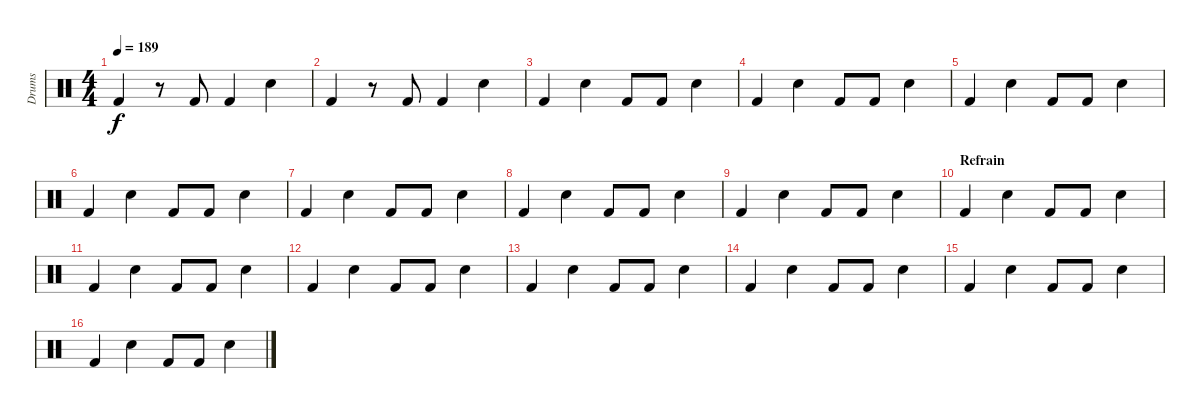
\track ("Drums" "Drums") {instrument percussion}
\staff {score}
\articulation defaults
\ts (4 4)
\tempo 189
\clef neutral
\ks c "Kick (hit) 2".4{dy f}
r.8 "Kick (hit) 2".8 "Kick (hit) 2".4 "Electric Snare (hit)".4 |
"Kick (hit) 2".4 r.8 "Kick (hit) 2".8 "Kick (hit) 2".4 "Electric Snare (hit)".4 |
"Kick (hit) 2".4 "Electric Snare (hit)".4 "Kick (hit) 2".8 "Kick (hit) 2".8 "Electric Snare (hit)".4 |
"Kick (hit) 2".4 "Electric Snare (hit)".4 "Kick (hit) 2".8 "Kick (hit) 2".8 "Electric Snare (hit)".4 |
"Kick (hit) 2".4 "Electric Snare (hit)".4 "Kick (hit) 2".8 "Kick (hit) 2".8 "Electric Snare (hit)".4 |
"Kick (hit) 2".4 "Electric Snare (hit)".4 "Kick (hit) 2".8 "Kick (hit) 2".8 "Electric Snare (hit)".4 |
"Kick (hit) 2".4 "Electric Snare (hit)".4 "Kick (hit) 2".8 "Kick (hit) 2".8 "Electric Snare (hit)".4 |
"Kick (hit) 2".4 "Electric Snare (hit)".4 "Kick (hit) 2".8 "Kick (hit) 2".8 "Electric Snare (hit)".4 |
"Kick (hit) 2".4 "Electric Snare (hit)".4 "Kick (hit) 2".8 "Kick (hit) 2".8 "Electric Snare (hit)".4 |
\section ("" "Refrain")
"Kick (hit) 2".4 "Electric Snare (hit)".4 "Kick (hit) 2".8 "Kick (hit) 2".8 "Electric Snare (hit)".4 |
"Kick (hit) 2".4 "Electric Snare (hit)".4 "Kick (hit) 2".8 "Kick (hit) 2".8 "Electric Snare (hit)".4 |
"Kick (hit) 2".4 "Electric Snare (hit)".4 "Kick (hit) 2".8 "Kick (hit) 2".8 "Electric Snare (hit)".4 |
"Kick (hit) 2".4 "Electric Snare (hit)".4 "Kick (hit) 2".8 "Kick (hit) 2".8 "Electric Snare (hit)".4 |
"Kick (hit) 2".4 "Electric Snare (hit)".4 "Kick (hit) 2".8 "Kick (hit) 2".8 "Electric Snare (hit)".4 |
"Kick (hit) 2".4 "Electric Snare (hit)".4 "Kick (hit) 2".8 "Kick (hit) 2".8 "Electric Snare (hit)".4 |
"Kick (hit) 2".4 "Electric Snare (hit)".4 "Kick (hit) 2".8 "Kick (hit) 2".8 "Electric Snare (hit)".4
